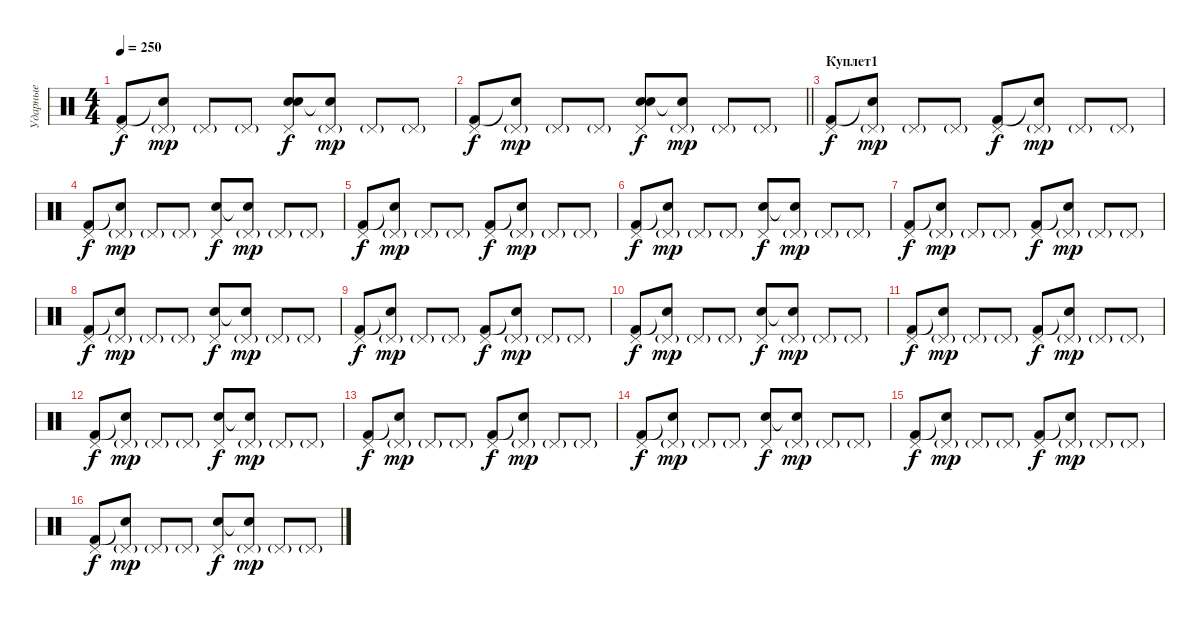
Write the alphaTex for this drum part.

\track ("Ударные" "Ударные") {instrument percussion}
\staff {score}
\articulation defaults
\ts (4 4)
\tempo 250
\clef neutral
\ks c
("Pedal Hi-Hat (hit)" "Kick (hit) 2").8{dy f} ("Pedal Hi-Hat (hit)"{g} "Snare (hit)"{t}).8{dy mp} "Pedal Hi-Hat (hit)"{g}.8 "Pedal Hi-Hat (hit)"{g}.8 ("Pedal Hi-Hat (hit)" "Electric Snare (hit)" "Hand Clap (hit)").8{dy f} ("Pedal Hi-Hat (hit)"{g} "Snare (hit)"{t}).8{dy mp} "Pedal Hi-Hat (hit)"{g}.8 "Pedal Hi-Hat (hit)"{g}.8 |
\barLineRight lightlight
("Pedal Hi-Hat (hit)" "Kick (hit) 2").8{dy f} ("Pedal Hi-Hat (hit)"{g} "Snare (hit)"{t}).8{dy mp} "Pedal Hi-Hat (hit)"{g}.8 "Pedal Hi-Hat (hit)"{g}.8 ("Pedal Hi-Hat (hit)" "Electric Snare (hit)" "Hand Clap (hit)").8{dy f} ("Pedal Hi-Hat (hit)"{g} "Snare (hit)"{t}).8{dy mp} "Pedal Hi-Hat (hit)"{g}.8 "Pedal Hi-Hat (hit)"{g}.8 |
\section ("" "Куплет1")
("Pedal Hi-Hat (hit)" "Kick (hit) 2").8{dy f} ("Pedal Hi-Hat (hit)"{g} "Snare (hit)"{t}).8{dy mp} "Pedal Hi-Hat (hit)"{g}.8 "Pedal Hi-Hat (hit)"{g}.8 ("Pedal Hi-Hat (hit)" "Kick (hit) 2").8{dy f} ("Pedal Hi-Hat (hit)"{g} "Snare (hit)"{t}).8{dy mp} "Pedal Hi-Hat (hit)"{g}.8 "Pedal Hi-Hat (hit)"{g}.8 |
("Pedal Hi-Hat (hit)" "Kick (hit) 2").8{dy f} ("Pedal Hi-Hat (hit)"{g} "Snare (hit)"{t}).8{dy mp} "Pedal Hi-Hat (hit)"{g}.8 "Pedal Hi-Hat (hit)"{g}.8 ("Pedal Hi-Hat (hit)" "Electric Snare (hit)").8{dy f} ("Pedal Hi-Hat (hit)"{g} "Snare (hit)"{t}).8{dy mp} "Pedal Hi-Hat (hit)"{g}.8 "Pedal Hi-Hat (hit)"{g}.8 |
("Pedal Hi-Hat (hit)" "Kick (hit) 2").8{dy f} ("Pedal Hi-Hat (hit)"{g} "Snare (hit)"{t}).8{dy mp} "Pedal Hi-Hat (hit)"{g}.8 "Pedal Hi-Hat (hit)"{g}.8 ("Pedal Hi-Hat (hit)" "Kick (hit) 2").8{dy f} ("Pedal Hi-Hat (hit)"{g} "Snare (hit)"{t}).8{dy mp} "Pedal Hi-Hat (hit)"{g}.8 "Pedal Hi-Hat (hit)"{g}.8 |
("Pedal Hi-Hat (hit)" "Kick (hit) 2").8{dy f} ("Pedal Hi-Hat (hit)"{g} "Snare (hit)"{t}).8{dy mp} "Pedal Hi-Hat (hit)"{g}.8 "Pedal Hi-Hat (hit)"{g}.8 ("Pedal Hi-Hat (hit)" "Electric Snare (hit)").8{dy f} ("Pedal Hi-Hat (hit)"{g} "Snare (hit)"{t}).8{dy mp} "Pedal Hi-Hat (hit)"{g}.8 "Pedal Hi-Hat (hit)"{g}.8 |
("Pedal Hi-Hat (hit)" "Kick (hit) 2").8{dy f} ("Pedal Hi-Hat (hit)"{g} "Snare (hit)"{t}).8{dy mp} "Pedal Hi-Hat (hit)"{g}.8 "Pedal Hi-Hat (hit)"{g}.8 ("Pedal Hi-Hat (hit)" "Kick (hit) 2").8{dy f} ("Pedal Hi-Hat (hit)"{g} "Snare (hit)"{t}).8{dy mp} "Pedal Hi-Hat (hit)"{g}.8 "Pedal Hi-Hat (hit)"{g}.8 |
("Pedal Hi-Hat (hit)" "Kick (hit) 2").8{dy f} ("Pedal Hi-Hat (hit)"{g} "Snare (hit)"{t}).8{dy mp} "Pedal Hi-Hat (hit)"{g}.8 "Pedal Hi-Hat (hit)"{g}.8 ("Pedal Hi-Hat (hit)" "Electric Snare (hit)").8{dy f} ("Pedal Hi-Hat (hit)"{g} "Snare (hit)"{t}).8{dy mp} "Pedal Hi-Hat (hit)"{g}.8 "Pedal Hi-Hat (hit)"{g}.8 |
("Pedal Hi-Hat (hit)" "Kick (hit) 2").8{dy f} ("Pedal Hi-Hat (hit)"{g} "Snare (hit)"{t}).8{dy mp} "Pedal Hi-Hat (hit)"{g}.8 "Pedal Hi-Hat (hit)"{g}.8 ("Pedal Hi-Hat (hit)" "Kick (hit) 2").8{dy f} ("Pedal Hi-Hat (hit)"{g} "Snare (hit)"{t}).8{dy mp} "Pedal Hi-Hat (hit)"{g}.8 "Pedal Hi-Hat (hit)"{g}.8 |
("Pedal Hi-Hat (hit)" "Kick (hit) 2").8{dy f} ("Pedal Hi-Hat (hit)"{g} "Snare (hit)"{t}).8{dy mp} "Pedal Hi-Hat (hit)"{g}.8 "Pedal Hi-Hat (hit)"{g}.8 ("Pedal Hi-Hat (hit)" "Electric Snare (hit)").8{dy f} ("Pedal Hi-Hat (hit)"{g} "Snare (hit)"{t}).8{dy mp} "Pedal Hi-Hat (hit)"{g}.8 "Pedal Hi-Hat (hit)"{g}.8 |
("Pedal Hi-Hat (hit)" "Kick (hit) 2").8{dy f} ("Pedal Hi-Hat (hit)"{g} "Snare (hit)"{t}).8{dy mp} "Pedal Hi-Hat (hit)"{g}.8 "Pedal Hi-Hat (hit)"{g}.8 ("Pedal Hi-Hat (hit)" "Kick (hit) 2").8{dy f} ("Pedal Hi-Hat (hit)"{g} "Snare (hit)"{t}).8{dy mp} "Pedal Hi-Hat (hit)"{g}.8 "Pedal Hi-Hat (hit)"{g}.8 |
("Pedal Hi-Hat (hit)" "Kick (hit) 2").8{dy f} ("Pedal Hi-Hat (hit)"{g} "Snare (hit)"{t}).8{dy mp} "Pedal Hi-Hat (hit)"{g}.8 "Pedal Hi-Hat (hit)"{g}.8 ("Pedal Hi-Hat (hit)" "Electric Snare (hit)").8{dy f} ("Pedal Hi-Hat (hit)"{g} "Snare (hit)"{t}).8{dy mp} "Pedal Hi-Hat (hit)"{g}.8 "Pedal Hi-Hat (hit)"{g}.8 |
("Pedal Hi-Hat (hit)" "Kick (hit) 2").8{dy f} ("Pedal Hi-Hat (hit)"{g} "Snare (hit)"{t}).8{dy mp} "Pedal Hi-Hat (hit)"{g}.8 "Pedal Hi-Hat (hit)"{g}.8 ("Pedal Hi-Hat (hit)" "Kick (hit) 2").8{dy f} ("Pedal Hi-Hat (hit)"{g} "Snare (hit)"{t}).8{dy mp} "Pedal Hi-Hat (hit)"{g}.8 "Pedal Hi-Hat (hit)"{g}.8 |
("Pedal Hi-Hat (hit)" "Kick (hit) 2").8{dy f} ("Pedal Hi-Hat (hit)"{g} "Snare (hit)"{t}).8{dy mp} "Pedal Hi-Hat (hit)"{g}.8 "Pedal Hi-Hat (hit)"{g}.8 ("Pedal Hi-Hat (hit)" "Electric Snare (hit)").8{dy f} ("Pedal Hi-Hat (hit)"{g} "Snare (hit)"{t}).8{dy mp} "Pedal Hi-Hat (hit)"{g}.8 "Pedal Hi-Hat (hit)"{g}.8 |
("Pedal Hi-Hat (hit)" "Kick (hit) 2").8{dy f} ("Pedal Hi-Hat (hit)"{g} "Snare (hit)"{t}).8{dy mp} "Pedal Hi-Hat (hit)"{g}.8 "Pedal Hi-Hat (hit)"{g}.8 ("Pedal Hi-Hat (hit)" "Kick (hit) 2").8{dy f} ("Pedal Hi-Hat (hit)"{g} "Snare (hit)"{t}).8{dy mp} "Pedal Hi-Hat (hit)"{g}.8 "Pedal Hi-Hat (hit)"{g}.8 |
("Pedal Hi-Hat (hit)" "Kick (hit) 2").8{dy f} ("Pedal Hi-Hat (hit)"{g} "Snare (hit)"{t}).8{dy mp} "Pedal Hi-Hat (hit)"{g}.8 "Pedal Hi-Hat (hit)"{g}.8 ("Pedal Hi-Hat (hit)" "Electric Snare (hit)").8{dy f} ("Pedal Hi-Hat (hit)"{g} "Snare (hit)"{t}).8{dy mp} "Pedal Hi-Hat (hit)"{g}.8 "Pedal Hi-Hat (hit)"{g}.8
